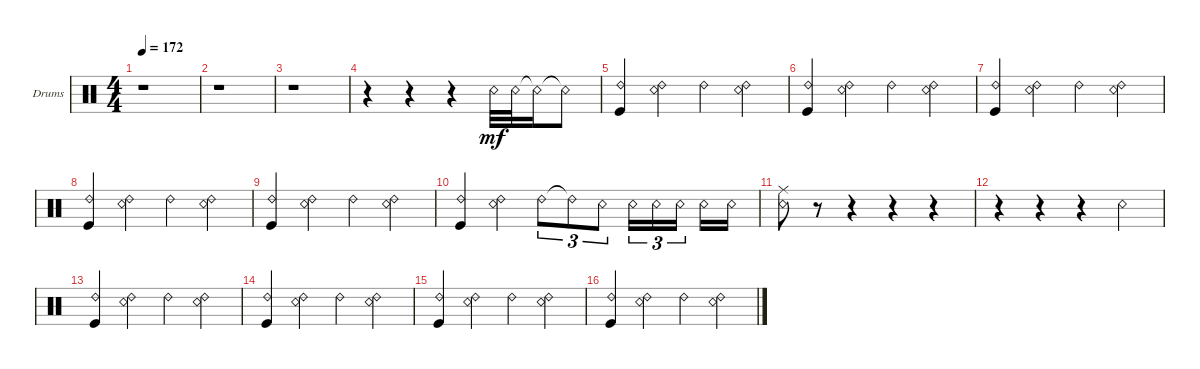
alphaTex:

\defaultSystemsLayout 4
\bracketExtendMode groupsimilarinstruments
\firstSystemTrackNameOrientation horizontal
\otherSystemsTrackNameOrientation horizontal
\track ("Drums" "Drums") {instrument percussion}
\staff {score}
\articulation defaults
\ts (4 4)
\tempo 172
\clef neutral
\scale
0.472222
\ks c
r.1{dy mf} |
\scale
0.263889 r.1 |
\scale
0.263889 r.1 |
\scale
0.333333 r.4 r.4 r.4 "Snare (rim shot)".32 "Snare (rim shot)".32 "Snare (rim shot)"{t}.16 "Snare (rim shot)"{t}.8 |
\scale
0.333333 ("Ride (bell) 2" "Kick (hit)").4 ("Ride (bell) 2" "Snare (rim shot)").4 "Ride (bell) 2".4 ("Snare (rim shot)" "Ride (bell) 2").4 |
\scale
0.333333 ("Ride (bell) 2" "Kick (hit)").4 ("Ride (bell) 2" "Snare (rim shot)").4 "Ride (bell) 2".4 ("Snare (rim shot)" "Ride (bell) 2").4 |
\scale
0.333333 ("Ride (bell) 2" "Kick (hit)").4 ("Ride (bell) 2" "Snare (rim shot)").4 "Ride (bell) 2".4 ("Snare (rim shot)" "Ride (bell) 2").4 |
\scale
0.333333 ("Ride (bell) 2" "Kick (hit)").4 ("Ride (bell) 2" "Snare (rim shot)").4 "Ride (bell) 2".4 ("Snare (rim shot)" "Ride (bell) 2").4 |
\scale
0.333333 ("Ride (bell) 2" "Kick (hit)").4 ("Ride (bell) 2" "Snare (rim shot)").4 "Ride (bell) 2".4 ("Snare (rim shot)" "Ride (bell) 2").4 |
\scale
0.333333 ("Ride (bell) 2" "Kick (hit)").4 ("Ride (bell) 2" "Snare (rim shot)").4 "Ride (bell) 2".8{tu (3 2)} "Ride (bell) 2"{t}.8{tu (3 2)} "Snare (rim shot)".8{tu (3 2)} "Snare (rim shot)".16{tu (3 2)} "Snare (rim shot)".16{tu (3 2)} "Snare (rim shot)".16{tu (3 2)} "Snare (rim shot)".16 "Snare (rim shot)".16 |
\scale
0.333333 ("Snare (rim shot)" "Ride (middle)").8 r.8 r.4 r.4 r.4 |
\scale
0.333333 r.4 r.4 r.4 "Snare (rim shot)".4 |
\scale
0.333333 ("Ride (bell) 2" "Kick (hit)").4 ("Ride (bell) 2" "Snare (rim shot)").4 "Ride (bell) 2".4 ("Snare (rim shot)" "Ride (bell) 2").4 |
\scale
0.333333 ("Ride (bell) 2" "Kick (hit)").4 ("Ride (bell) 2" "Snare (rim shot)").4 "Ride (bell) 2".4 ("Snare (rim shot)" "Ride (bell) 2").4 |
\scale
0.333333 ("Ride (bell) 2" "Kick (hit)").4 ("Ride (bell) 2" "Snare (rim shot)").4 "Ride (bell) 2".4 ("Snare (rim shot)" "Ride (bell) 2").4 |
\scale
0.333333 ("Ride (bell) 2" "Kick (hit)").4 ("Ride (bell) 2" "Snare (rim shot)").4 "Ride (bell) 2".4 ("Snare (rim shot)" "Ride (bell) 2").4
